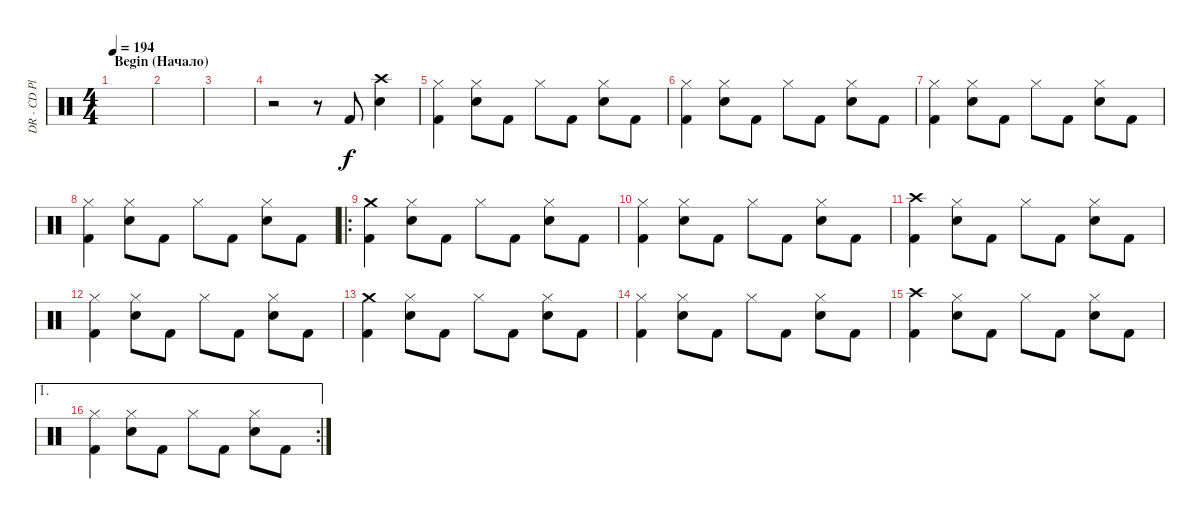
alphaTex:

\track ("DR - CD Player" "DR - CD Pl") {instrument percussion}
\staff {score}
\articulation defaults
\ts (4 4)
\section ("" "Begin (Начало)")
\tempo 194
\clef neutral
\ks c
|
|
|
r.2 r.8 "Kick (hit) 2".8 ("Snare (hit) 2" "Crash high (hit)").4 |
("Kick (hit) 2" "Hi-Hat (closed)").4 ("Snare (hit) 2" "Hi-Hat (closed)").8 "Kick (hit) 2".8 "Hi-Hat (closed)".8 "Kick (hit) 2".8 ("Snare (hit) 2" "Hi-Hat (closed)").8 "Kick (hit) 2".8 |
("Kick (hit) 2" "Hi-Hat (closed)").4 ("Snare (hit) 2" "Hi-Hat (closed)").8 "Kick (hit) 2".8 "Hi-Hat (closed)".8 "Kick (hit) 2".8 ("Snare (hit) 2" "Hi-Hat (closed)").8 "Kick (hit) 2".8 |
("Kick (hit) 2" "Hi-Hat (closed)").4 ("Snare (hit) 2" "Hi-Hat (closed)").8 "Kick (hit) 2".8 "Hi-Hat (closed)".8 "Kick (hit) 2".8 ("Snare (hit) 2" "Hi-Hat (closed)").8 "Kick (hit) 2".8 |
("Kick (hit) 2" "Hi-Hat (closed)").4 ("Snare (hit) 2" "Hi-Hat (closed)").8 "Kick (hit) 2".8 "Hi-Hat (closed)".8 "Kick (hit) 2".8 ("Snare (hit) 2" "Hi-Hat (closed)").8 "Kick (hit) 2".8 |
\ro
("Kick (hit) 2" "Crash medium (hit)").4 ("Snare (hit) 2" "Hi-Hat (closed)").8 "Kick (hit) 2".8 "Hi-Hat (closed)".8 "Kick (hit) 2".8 ("Snare (hit) 2" "Hi-Hat (closed)").8 "Kick (hit) 2".8 |
("Kick (hit) 2" "Hi-Hat (closed)").4 ("Snare (hit) 2" "Hi-Hat (closed)").8 "Kick (hit) 2".8 "Hi-Hat (closed)".8 "Kick (hit) 2".8 ("Snare (hit) 2" "Hi-Hat (closed)").8 "Kick (hit) 2".8 |
("Kick (hit) 2" "Crash high (hit)").4 ("Snare (hit) 2" "Hi-Hat (closed)").8 "Kick (hit) 2".8 "Hi-Hat (closed)".8 "Kick (hit) 2".8 ("Snare (hit) 2" "Hi-Hat (closed)").8 "Kick (hit) 2".8 |
("Kick (hit) 2" "Hi-Hat (closed)").4 ("Snare (hit) 2" "Hi-Hat (closed)").8 "Kick (hit) 2".8 "Hi-Hat (closed)".8 "Kick (hit) 2".8 ("Snare (hit) 2" "Hi-Hat (closed)").8 "Kick (hit) 2".8 |
("Kick (hit) 2" "Crash medium (hit)").4 ("Snare (hit) 2" "Hi-Hat (closed)").8 "Kick (hit) 2".8 "Hi-Hat (closed)".8 "Kick (hit) 2".8 ("Snare (hit) 2" "Hi-Hat (closed)").8 "Kick (hit) 2".8 |
("Kick (hit) 2" "Hi-Hat (closed)").4 ("Snare (hit) 2" "Hi-Hat (closed)").8 "Kick (hit) 2".8 "Hi-Hat (closed)".8 "Kick (hit) 2".8 ("Snare (hit) 2" "Hi-Hat (closed)").8 "Kick (hit) 2".8 |
("Kick (hit) 2" "Crash high (hit)").4 ("Snare (hit) 2" "Hi-Hat (closed)").8 "Kick (hit) 2".8 "Hi-Hat (closed)".8 "Kick (hit) 2".8 ("Snare (hit) 2" "Hi-Hat (closed)").8 "Kick (hit) 2".8 |
\ae 1
\rc 2
("Kick (hit) 2" "Hi-Hat (closed)").4 ("Snare (hit) 2" "Hi-Hat (closed)").8 "Kick (hit) 2".8 "Hi-Hat (closed)".8 "Kick (hit) 2".8 ("Snare (hit) 2" "Hi-Hat (closed)").8 "Kick (hit) 2".8
